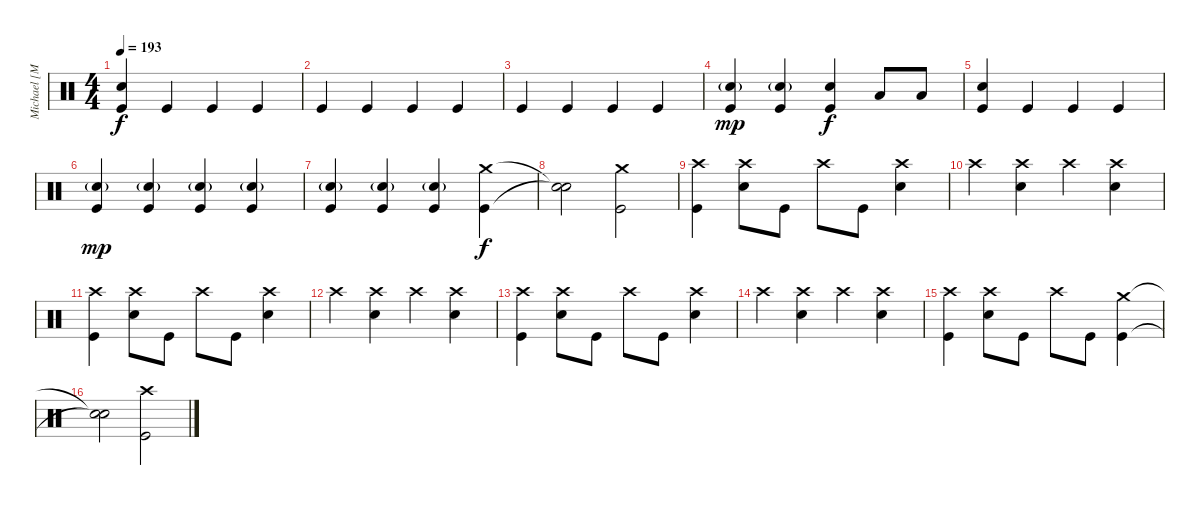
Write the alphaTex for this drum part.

\track ("Michael [Moose] Thomas" "Michael [M") {instrument percussion}
\staff {score}
\articulation defaults
\ts (4 4)
\tempo 193
\clef neutral
\ks c
("Snare (hit) 2" "Kick (hit)").4{dy f} "Kick (hit)".4 "Kick (hit)".4 "Kick (hit)".4 |
"Kick (hit)".4 "Kick (hit)".4 "Kick (hit)".4 "Kick (hit)".4 |
"Kick (hit)".4 "Kick (hit)".4 "Kick (hit)".4 "Kick (hit)".4 |
("Snare (hit) 2"{g} "Kick (hit)").4{dy mp} ("Snare (hit) 2"{g} "Kick (hit)").4 ("Snare (hit) 2" "Kick (hit)").4{dy f} "Low Tom (hit)".8 "Low Floor Tom (hit)".8 |
("Snare (hit) 2" "Kick (hit)").4 "Kick (hit)".4 "Kick (hit)".4 "Kick (hit)".4 |
("Snare (hit) 2"{g} "Kick (hit)").4{dy mp} ("Snare (hit) 2"{g} "Kick (hit)").4 ("Snare (hit) 2"{g} "Kick (hit)").4 ("Snare (hit) 2"{g} "Kick (hit)").4 |
("Snare (hit) 2"{g} "Kick (hit)").4 ("Snare (hit) 2"{g} "Kick (hit)").4 ("Snare (hit) 2"{g} "Kick (hit)").4 ("Crash medium (hit)" "Kick (hit)").4{dy f} |
("Snare (hit)"{t} "Snare (hit)"{t}).2 ("Crash medium (hit)" "Kick (hit)").2 |
("Crash high (hit)" "Kick (hit)").4 ("Crash high (hit)" "Snare (hit) 2").8 "Kick (hit)".8 "Crash high (hit)".8 "Kick (hit)".8 ("Crash high (hit)" "Snare (hit) 2").4 |
"Crash high (hit)".4 ("Crash high (hit)" "Snare (hit) 2").4 "Crash high (hit)".4 ("Crash high (hit)" "Snare (hit) 2").4 |
("Crash high (hit)" "Kick (hit)").4 ("Crash high (hit)" "Snare (hit) 2").8 "Kick (hit)".8 "Crash high (hit)".8 "Kick (hit)".8 ("Crash high (hit)" "Snare (hit) 2").4 |
"Crash high (hit)".4 ("Crash high (hit)" "Snare (hit) 2").4 "Crash high (hit)".4 ("Crash high (hit)" "Snare (hit) 2").4 |
("Crash high (hit)" "Kick (hit)").4 ("Crash high (hit)" "Snare (hit) 2").8 "Kick (hit)".8 "Crash high (hit)".8 "Kick (hit)".8 ("Crash high (hit)" "Snare (hit) 2").4 |
"Crash high (hit)".4 ("Crash high (hit)" "Snare (hit) 2").4 "Crash high (hit)".4 ("Crash high (hit)" "Snare (hit) 2").4 |
("Crash high (hit)" "Kick (hit)").4 ("Crash high (hit)" "Snare (hit) 2").8 "Kick (hit)".8 "Crash high (hit)".8 "Kick (hit)".8 ("Crash medium (hit)" "Kick (hit)").4 |
("Snare (hit)"{t} "Snare (hit)"{t}).2 ("Crash high (hit)" "Kick (hit)").2
